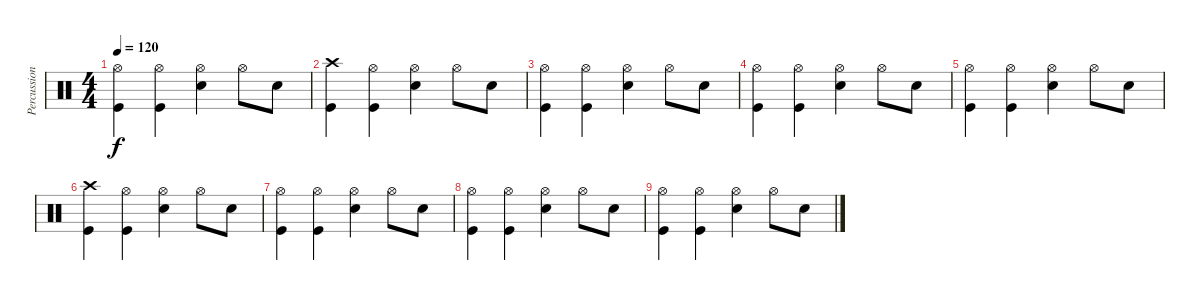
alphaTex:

\track ("Percussions" "Percussion") {instrument percussion}
\staff {score}
\articulation defaults
\ts (4 4)
\tempo 120
\clef neutral
\ks c
("Hi-Hat (open)" "Kick (hit)").4{dy f} ("Hi-Hat (open)" "Kick (hit)").4 ("Hi-Hat (open)" "Snare (hit) 2").4 "Hi-Hat (open)".8 "Snare (hit) 2".8 |
("Crash high (hit)" "Kick (hit)").4 ("Hi-Hat (open)" "Kick (hit)").4 ("Hi-Hat (open)" "Snare (hit) 2").4 "Hi-Hat (open)".8 "Snare (hit) 2".8 |
("Hi-Hat (open)" "Kick (hit)").4 ("Hi-Hat (open)" "Kick (hit)").4 ("Hi-Hat (open)" "Snare (hit) 2").4 "Hi-Hat (open)".8 "Snare (hit) 2".8 |
("Hi-Hat (open)" "Kick (hit)").4 ("Hi-Hat (open)" "Kick (hit)").4 ("Hi-Hat (open)" "Snare (hit) 2").4 "Hi-Hat (open)".8 "Snare (hit) 2".8 |
("Hi-Hat (open)" "Kick (hit)").4 ("Hi-Hat (open)" "Kick (hit)").4 ("Hi-Hat (open)" "Snare (hit) 2").4 "Hi-Hat (open)".8 "Snare (hit) 2".8 |
("Crash high (hit)" "Kick (hit)").4 ("Hi-Hat (open)" "Kick (hit)").4 ("Hi-Hat (open)" "Snare (hit) 2").4 "Hi-Hat (open)".8 "Snare (hit) 2".8 |
("Hi-Hat (open)" "Kick (hit)").4 ("Hi-Hat (open)" "Kick (hit)").4 ("Hi-Hat (open)" "Snare (hit) 2").4 "Hi-Hat (open)".8 "Snare (hit) 2".8 |
("Hi-Hat (open)" "Kick (hit)").4 ("Hi-Hat (open)" "Kick (hit)").4 ("Hi-Hat (open)" "Snare (hit) 2").4 "Hi-Hat (open)".8 "Snare (hit) 2".8 |
("Hi-Hat (open)" "Kick (hit)").4 ("Hi-Hat (open)" "Kick (hit)").4 ("Hi-Hat (open)" "Snare (hit) 2").4 "Hi-Hat (open)".8 "Snare (hit) 2".8
